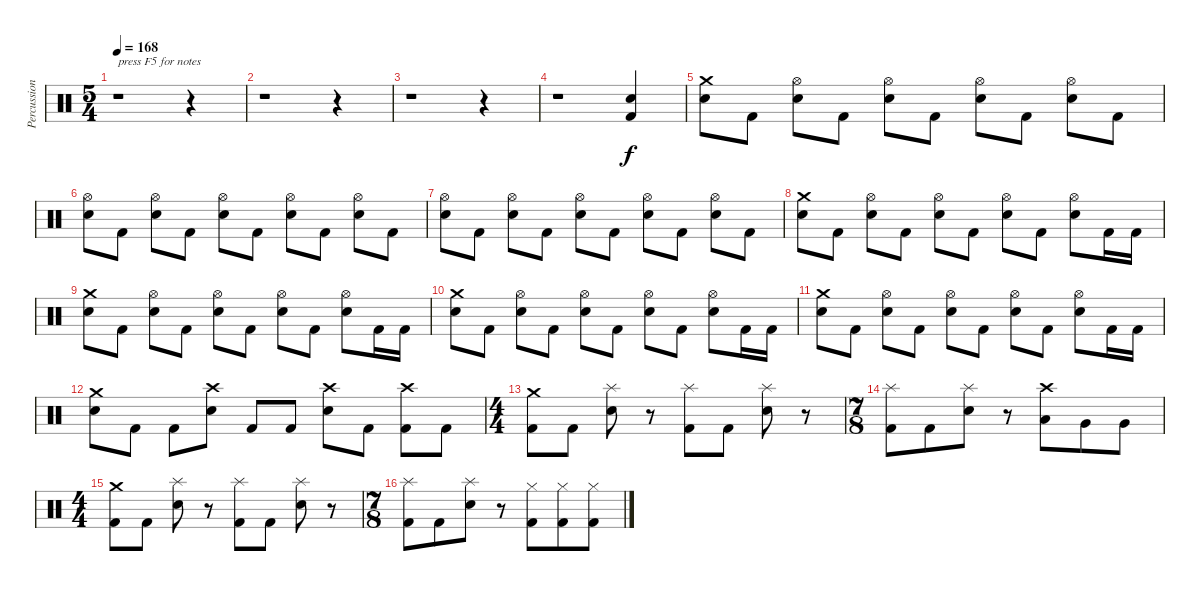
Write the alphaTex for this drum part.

\track ("Percussion" "Percussion") {instrument percussion}
\staff {score}
\articulation defaults
\ts (5 4)
\tempo 168
\clef neutral
\ks c
r.1{txt "press F5 for notes" dy f} r.4 |
r.1 r.4 |
r.1 r.4 |
r.1 ("Electric Snare (hit)" "Kick (hit) 2").4 |
("Crash medium (hit)" "Electric Snare (hit)").8 "Kick (hit) 2".8 ("Hi-Hat (open)" "Electric Snare (hit)").8 "Kick (hit) 2".8 ("Hi-Hat (open)" "Electric Snare (hit)").8 "Kick (hit) 2".8 ("Hi-Hat (open)" "Electric Snare (hit)").8 "Kick (hit) 2".8 ("Hi-Hat (open)" "Electric Snare (hit)").8 "Kick (hit) 2".8 |
("Hi-Hat (open)" "Electric Snare (hit)").8 "Kick (hit) 2".8 ("Hi-Hat (open)" "Electric Snare (hit)").8 "Kick (hit) 2".8 ("Hi-Hat (open)" "Electric Snare (hit)").8 "Kick (hit) 2".8 ("Hi-Hat (open)" "Electric Snare (hit)").8 "Kick (hit) 2".8 ("Hi-Hat (open)" "Electric Snare (hit)").8 "Kick (hit) 2".8 |
("Hi-Hat (open)" "Electric Snare (hit)").8 "Kick (hit) 2".8 ("Hi-Hat (open)" "Electric Snare (hit)").8 "Kick (hit) 2".8 ("Hi-Hat (open)" "Electric Snare (hit)").8 "Kick (hit) 2".8 ("Hi-Hat (open)" "Electric Snare (hit)").8 "Kick (hit) 2".8 ("Hi-Hat (open)" "Electric Snare (hit)").8 "Kick (hit) 2".8 |
("Crash medium (hit)" "Electric Snare (hit)").8 "Kick (hit) 2".8 ("Hi-Hat (open)" "Electric Snare (hit)").8 "Kick (hit) 2".8 ("Hi-Hat (open)" "Electric Snare (hit)").8 "Kick (hit) 2".8 ("Hi-Hat (open)" "Electric Snare (hit)").8 "Kick (hit) 2".8 ("Hi-Hat (open)" "Electric Snare (hit)").8 "Kick (hit) 2".16 "Kick (hit) 2".16 |
("Crash medium (hit)" "Electric Snare (hit)").8 "Kick (hit) 2".8 ("Hi-Hat (open)" "Electric Snare (hit)").8 "Kick (hit) 2".8 ("Hi-Hat (open)" "Electric Snare (hit)").8 "Kick (hit) 2".8 ("Hi-Hat (open)" "Electric Snare (hit)").8 "Kick (hit) 2".8 ("Hi-Hat (open)" "Electric Snare (hit)").8 "Kick (hit) 2".16 "Kick (hit) 2".16 |
("Crash medium (hit)" "Electric Snare (hit)").8 "Kick (hit) 2".8 ("Hi-Hat (open)" "Electric Snare (hit)").8 "Kick (hit) 2".8 ("Hi-Hat (open)" "Electric Snare (hit)").8 "Kick (hit) 2".8 ("Hi-Hat (open)" "Electric Snare (hit)").8 "Kick (hit) 2".8 ("Hi-Hat (open)" "Electric Snare (hit)").8 "Kick (hit) 2".16 "Kick (hit) 2".16 |
("Crash medium (hit)" "Electric Snare (hit)").8 "Kick (hit) 2".8 ("Hi-Hat (open)" "Electric Snare (hit)").8 "Kick (hit) 2".8 ("Hi-Hat (open)" "Electric Snare (hit)").8 "Kick (hit) 2".8 ("Hi-Hat (open)" "Electric Snare (hit)").8 "Kick (hit) 2".8 ("Hi-Hat (open)" "Electric Snare (hit)").8 "Kick (hit) 2".16 "Kick (hit) 2".16 |
("Crash medium (hit)" "Electric Snare (hit)").8 "Kick (hit) 2".8 "Kick (hit) 2".8 ("Crash high (hit)" "Electric Snare (hit)").8 "Kick (hit) 2".8 "Kick (hit) 2".8 ("Crash high (hit)" "Electric Snare (hit)").8 "Kick (hit) 2".8 ("Crash high (hit)" "Kick (hit) 2").8 "Kick (hit) 2".8 |
\ts (4 4)
("Crash medium (hit)" "Kick (hit) 2").8 "Kick (hit) 2".8 ("Splash (hit)" "Electric Snare (hit)").8 r.8 ("Splash (hit)" "Kick (hit) 2").8 "Kick (hit) 2".8 ("Splash (hit)" "Electric Snare (hit)").8 r.8 |
\ts (7 8)
("Splash (hit)" "Kick (hit) 2").8 "Kick (hit) 2".8 ("Splash (hit)" "Electric Snare (hit)").8 r.8 ("Crash high (hit)" "Low Tom (hit)").8 "Very Low Tom (hit)".8 "Very Low Tom (hit)".8 |
\ts (4 4)
("Crash medium (hit)" "Kick (hit) 2").8 "Kick (hit) 2".8 ("Splash (hit)" "Electric Snare (hit)").8 r.8 ("Splash (hit)" "Kick (hit) 2").8 "Kick (hit) 2".8 ("Splash (hit)" "Electric Snare (hit)").8 r.8 |
\ts (7 8)
("Splash (hit)" "Kick (hit) 2").8 "Kick (hit) 2".8 ("Splash (hit)" "Electric Snare (hit)").8 r.8 ("Hi-Hat (closed)" "Kick (hit) 2").8 ("Hi-Hat (closed)" "Kick (hit) 2").8 ("Hi-Hat (closed)" "Kick (hit) 2").8
